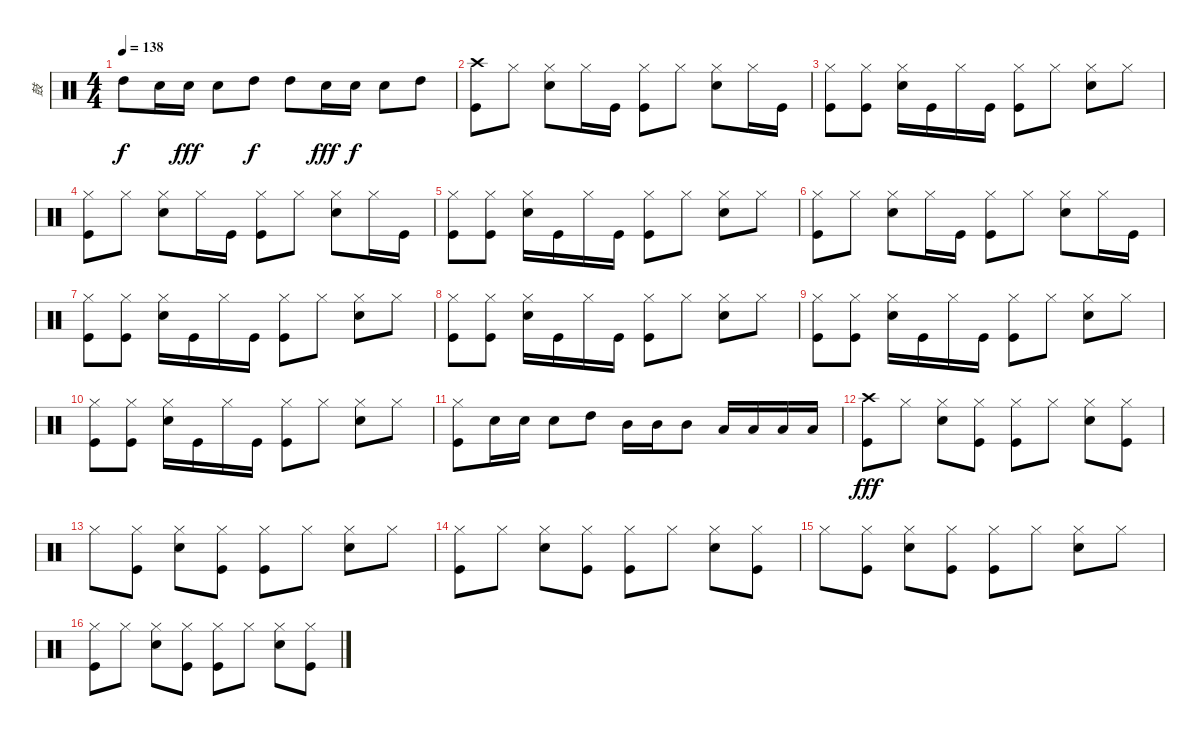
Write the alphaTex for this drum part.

\track ("鼓" "鼓") {instrument percussion}
\staff {score}
\articulation defaults
\ts (4 4)
\tempo 138
\clef neutral
\ks c "High Tom (hit)".8{dy f} "Snare (hit) 2".16 "Snare (hit) 2".16{dy fff} "Snare (hit) 2".8 "High Tom (hit)".8{dy f} "High Tom (hit)".8 "Snare (hit) 2".16{dy fff} "Snare (hit) 2".16{dy f} "Snare (hit) 2".8 "High Tom (hit)".8
|
("Crash high (hit)" "Kick (hit)").8 "Hi-Hat (closed)".8 ("Hi-Hat (closed)" "Snare (hit) 2").8 "Hi-Hat (closed)".16 "Kick (hit)".16 ("Hi-Hat (closed)" "Kick (hit)").8 "Hi-Hat (closed)".8 ("Hi-Hat (closed)" "Snare (hit) 2").8 "Hi-Hat (closed)".16 "Kick (hit)".16 |
("Hi-Hat (closed)" "Kick (hit)").8 ("Hi-Hat (closed)" "Kick (hit)").8 ("Hi-Hat (closed)" "Snare (hit) 2").16 "Kick (hit)".16 "Hi-Hat (closed)".16 "Kick (hit)".16 ("Hi-Hat (closed)" "Kick (hit)").8 "Hi-Hat (closed)".8 ("Hi-Hat (closed)" "Snare (hit) 2").8 "Hi-Hat (closed)".8 |
("Hi-Hat (closed)" "Kick (hit)").8 "Hi-Hat (closed)".8 ("Hi-Hat (closed)" "Snare (hit) 2").8 "Hi-Hat (closed)".16 "Kick (hit)".16 ("Hi-Hat (closed)" "Kick (hit)").8 "Hi-Hat (closed)".8 ("Hi-Hat (closed)" "Snare (hit) 2").8 "Hi-Hat (closed)".16 "Kick (hit)".16 |
("Hi-Hat (closed)" "Kick (hit)").8 ("Hi-Hat (closed)" "Kick (hit)").8 ("Hi-Hat (closed)" "Snare (hit) 2").16 "Kick (hit)".16 "Hi-Hat (closed)".16 "Kick (hit)".16 ("Hi-Hat (closed)" "Kick (hit)").8 "Hi-Hat (closed)".8 ("Hi-Hat (closed)" "Snare (hit) 2").8 "Hi-Hat (closed)".8 |
("Hi-Hat (closed)" "Kick (hit)").8 "Hi-Hat (closed)".8 ("Hi-Hat (closed)" "Snare (hit) 2").8 "Hi-Hat (closed)".16 "Kick (hit)".16 ("Hi-Hat (closed)" "Kick (hit)").8 "Hi-Hat (closed)".8 ("Hi-Hat (closed)" "Snare (hit) 2").8 "Hi-Hat (closed)".16 "Kick (hit)".16 |
("Hi-Hat (closed)" "Kick (hit)").8 ("Hi-Hat (closed)" "Kick (hit)").8 ("Hi-Hat (closed)" "Snare (hit) 2").16 "Kick (hit)".16 "Hi-Hat (closed)".16 "Kick (hit)".16 ("Hi-Hat (closed)" "Kick (hit)").8 "Hi-Hat (closed)".8 ("Hi-Hat (closed)" "Snare (hit) 2").8 "Hi-Hat (closed)".8 |
("Hi-Hat (closed)" "Kick (hit)").8 ("Hi-Hat (closed)" "Kick (hit)").8 ("Hi-Hat (closed)" "Snare (hit) 2").16 "Kick (hit)".16 "Hi-Hat (closed)".16 "Kick (hit)".16 ("Hi-Hat (closed)" "Kick (hit)").8 "Hi-Hat (closed)".8 ("Hi-Hat (closed)" "Snare (hit) 2").8 "Hi-Hat (closed)".8 |
("Hi-Hat (closed)" "Kick (hit)").8 ("Hi-Hat (closed)" "Kick (hit)").8 ("Hi-Hat (closed)" "Snare (hit) 2").16 "Kick (hit)".16 "Hi-Hat (closed)".16 "Kick (hit)".16 ("Hi-Hat (closed)" "Kick (hit)").8 "Hi-Hat (closed)".8 ("Hi-Hat (closed)" "Snare (hit) 2").8 "Hi-Hat (closed)".8 |
("Hi-Hat (closed)" "Kick (hit)").8 ("Hi-Hat (closed)" "Kick (hit)").8 ("Hi-Hat (closed)" "Snare (hit) 2").16 "Kick (hit)".16 "Hi-Hat (closed)".16 "Kick (hit)".16 ("Hi-Hat (closed)" "Kick (hit)").8 "Hi-Hat (closed)".8 ("Hi-Hat (closed)" "Snare (hit) 2").8 "Hi-Hat (closed)".8 |
("Hi-Hat (closed)" "Kick (hit)").8 "Snare (hit) 2".16 "Snare (hit) 2".16 "Snare (hit) 2".8 "High Tom (hit)".8 "Mid Tom (hit)".16 "Mid Tom (hit)".16 "Mid Tom (hit)".8 "Low Tom (hit)".16 "Low Tom (hit)".16 "Low Tom (hit)".16 "Low Tom (hit)".16 |
("Crash high (hit)" "Kick (hit)").8{dy fff} "Hi-Hat (closed)".8 ("Hi-Hat (closed)" "Snare (hit) 2").8 ("Hi-Hat (closed)" "Kick (hit)").8 ("Hi-Hat (closed)" "Kick (hit)").8 "Hi-Hat (closed)".8 ("Hi-Hat (closed)" "Snare (hit) 2").8 ("Hi-Hat (closed)" "Kick (hit)").8 |
"Hi-Hat (closed)".8 ("Hi-Hat (closed)" "Kick (hit)").8 ("Hi-Hat (closed)" "Snare (hit) 2").8 ("Hi-Hat (closed)" "Kick (hit)").8 ("Hi-Hat (closed)" "Kick (hit)").8 "Hi-Hat (closed)".8 ("Hi-Hat (closed)" "Snare (hit) 2").8 "Hi-Hat (closed)".8 |
("Hi-Hat (closed)" "Kick (hit)").8 "Hi-Hat (closed)".8 ("Hi-Hat (closed)" "Snare (hit) 2").8 ("Hi-Hat (closed)" "Kick (hit)").8 ("Hi-Hat (closed)" "Kick (hit)").8 "Hi-Hat (closed)".8 ("Hi-Hat (closed)" "Snare (hit) 2").8 ("Hi-Hat (closed)" "Kick (hit)").8 |
"Hi-Hat (closed)".8 ("Hi-Hat (closed)" "Kick (hit)").8 ("Hi-Hat (closed)" "Snare (hit) 2").8 ("Hi-Hat (closed)" "Kick (hit)").8 ("Hi-Hat (closed)" "Kick (hit)").8 "Hi-Hat (closed)".8 ("Hi-Hat (closed)" "Snare (hit) 2").8 "Hi-Hat (closed)".8 |
("Hi-Hat (closed)" "Kick (hit)").8 "Hi-Hat (closed)".8 ("Hi-Hat (closed)" "Snare (hit) 2").8 ("Hi-Hat (closed)" "Kick (hit)").8 ("Hi-Hat (closed)" "Kick (hit)").8 "Hi-Hat (closed)".8 ("Hi-Hat (closed)" "Snare (hit) 2").8 ("Hi-Hat (closed)" "Kick (hit)").8
